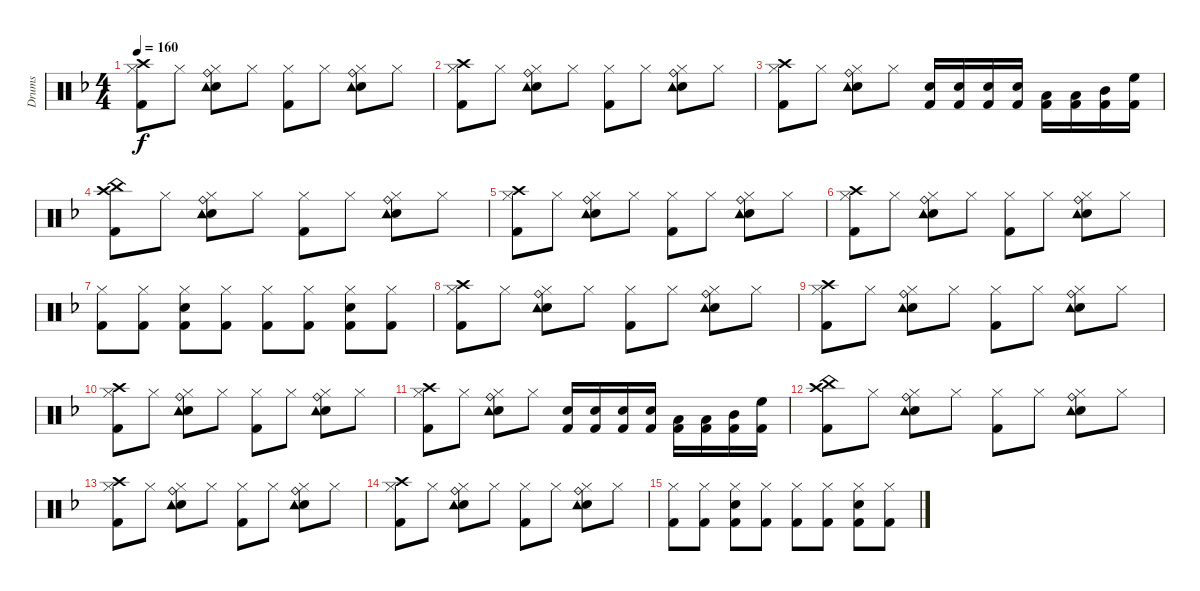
\track ("Drums" "Drums") {instrument percussion}
\staff {score}
\articulation defaults
\ts (4 4)
\tempo 160
\clef neutral
\ks dminor
("Hi-Hat (closed)" "Crash high (hit)" "Kick (hit) 2").8{dy f} "Hi-Hat (closed)".8 ("Hi-Hat (closed)" "Electric Snare (hit)" "Tambourine (hit)" "Ride (bell)").8 "Hi-Hat (closed)".8 ("Hi-Hat (closed)" "Kick (hit) 2").8 "Hi-Hat (closed)".8 ("Hi-Hat (closed)" "Electric Snare (hit)" "Tambourine (hit)" "Ride (bell)").8 "Hi-Hat (closed)".8 |
("Hi-Hat (closed)" "Crash high (hit)" "Kick (hit) 2").8 "Hi-Hat (closed)".8 ("Hi-Hat (closed)" "Electric Snare (hit)" "Tambourine (hit)" "Ride (bell)").8 "Hi-Hat (closed)".8 ("Hi-Hat (closed)" "Kick (hit) 2").8 "Hi-Hat (closed)".8 ("Hi-Hat (closed)" "Electric Snare (hit)" "Tambourine (hit)" "Ride (bell)").8 "Hi-Hat (closed)".8 |
("Hi-Hat (closed)" "Crash high (hit)" "Kick (hit) 2").8 "Hi-Hat (closed)".8 ("Hi-Hat (closed)" "Electric Snare (hit)" "Tambourine (hit)" "Ride (bell)").8 "Hi-Hat (closed)".8 ("Snare (hit) 2" "Kick (hit) 2").16 ("Snare (hit) 2" "Kick (hit) 2").16 ("Snare (hit) 2" "Kick (hit) 2").16 ("Snare (hit) 2" "Kick (hit) 2").16 ("Low Floor Tom (hit)" "Kick (hit) 2").16 ("Low Tom (hit)" "Kick (hit) 2").16 ("Mid Tom (hit)" "Kick (hit) 2").16 ("High Floor Tom (hit)" "Kick (hit) 2").16 |
("China (hit)" "Crash high (hit)" "Kick (hit) 2").8 "Hi-Hat (closed)".8 ("Hi-Hat (closed)" "Electric Snare (hit)" "Tambourine (hit)" "Ride (bell)").8 "Hi-Hat (closed)".8 ("Hi-Hat (closed)" "Kick (hit) 2").8 "Hi-Hat (closed)".8 ("Hi-Hat (closed)" "Electric Snare (hit)" "Tambourine (hit)" "Ride (bell)").8 "Hi-Hat (closed)".8 |
("Hi-Hat (closed)" "Crash high (hit)" "Kick (hit) 2").8 "Hi-Hat (closed)".8 ("Hi-Hat (closed)" "Electric Snare (hit)" "Tambourine (hit)" "Ride (bell)").8 "Hi-Hat (closed)".8 ("Hi-Hat (closed)" "Kick (hit) 2").8 "Hi-Hat (closed)".8 ("Hi-Hat (closed)" "Electric Snare (hit)" "Tambourine (hit)" "Ride (bell)").8 "Hi-Hat (closed)".8 |
("Hi-Hat (closed)" "Crash high (hit)" "Kick (hit) 2").8 "Hi-Hat (closed)".8 ("Hi-Hat (closed)" "Electric Snare (hit)" "Tambourine (hit)" "Ride (bell)").8 "Hi-Hat (closed)".8 ("Hi-Hat (closed)" "Kick (hit) 2").8 "Hi-Hat (closed)".8 ("Hi-Hat (closed)" "Electric Snare (hit)" "Tambourine (hit)" "Ride (bell)").8 "Hi-Hat (closed)".8 |
("Hi-Hat (closed)" "Kick (hit) 2").8 ("Hi-Hat (closed)" "Kick (hit) 2").8 ("Hi-Hat (closed)" "Electric Snare (hit)" "Kick (hit) 2").8 ("Hi-Hat (closed)" "Kick (hit) 2").8 ("Hi-Hat (closed)" "Kick (hit) 2").8 ("Hi-Hat (closed)" "Kick (hit) 2").8 ("Hi-Hat (closed)" "Electric Snare (hit)" "Kick (hit) 2").8 ("Hi-Hat (closed)" "Kick (hit) 2").8 |
("Hi-Hat (closed)" "Crash high (hit)" "Kick (hit) 2").8 "Hi-Hat (closed)".8 ("Hi-Hat (closed)" "Electric Snare (hit)" "Tambourine (hit)" "Ride (bell)").8 "Hi-Hat (closed)".8 ("Hi-Hat (closed)" "Kick (hit) 2").8 "Hi-Hat (closed)".8 ("Hi-Hat (closed)" "Electric Snare (hit)" "Tambourine (hit)" "Ride (bell)").8 "Hi-Hat (closed)".8 |
("Hi-Hat (closed)" "Crash high (hit)" "Kick (hit) 2").8 "Hi-Hat (closed)".8 ("Hi-Hat (closed)" "Electric Snare (hit)" "Tambourine (hit)" "Ride (bell)").8 "Hi-Hat (closed)".8 ("Hi-Hat (closed)" "Kick (hit) 2").8 "Hi-Hat (closed)".8 ("Hi-Hat (closed)" "Electric Snare (hit)" "Tambourine (hit)" "Ride (bell)").8 "Hi-Hat (closed)".8 |
("Hi-Hat (closed)" "Crash high (hit)" "Kick (hit) 2").8 "Hi-Hat (closed)".8 ("Hi-Hat (closed)" "Electric Snare (hit)" "Tambourine (hit)" "Ride (bell)").8 "Hi-Hat (closed)".8 ("Hi-Hat (closed)" "Kick (hit) 2").8 "Hi-Hat (closed)".8 ("Hi-Hat (closed)" "Electric Snare (hit)" "Tambourine (hit)" "Ride (bell)").8 "Hi-Hat (closed)".8 |
("Hi-Hat (closed)" "Crash high (hit)" "Kick (hit) 2").8 "Hi-Hat (closed)".8 ("Hi-Hat (closed)" "Electric Snare (hit)" "Tambourine (hit)" "Ride (bell)").8 "Hi-Hat (closed)".8 ("Snare (hit) 2" "Kick (hit) 2").16 ("Snare (hit) 2" "Kick (hit) 2").16 ("Snare (hit) 2" "Kick (hit) 2").16 ("Snare (hit) 2" "Kick (hit) 2").16 ("Low Floor Tom (hit)" "Kick (hit) 2").16 ("Low Tom (hit)" "Kick (hit) 2").16 ("Mid Tom (hit)" "Kick (hit) 2").16 ("High Floor Tom (hit)" "Kick (hit) 2").16 |
("China (hit)" "Crash high (hit)" "Kick (hit) 2").8 "Hi-Hat (closed)".8 ("Hi-Hat (closed)" "Electric Snare (hit)" "Tambourine (hit)" "Ride (bell)").8 "Hi-Hat (closed)".8 ("Hi-Hat (closed)" "Kick (hit) 2").8 "Hi-Hat (closed)".8 ("Hi-Hat (closed)" "Electric Snare (hit)" "Tambourine (hit)" "Ride (bell)").8 "Hi-Hat (closed)".8 |
("Hi-Hat (closed)" "Crash high (hit)" "Kick (hit) 2").8 "Hi-Hat (closed)".8 ("Hi-Hat (closed)" "Electric Snare (hit)" "Tambourine (hit)" "Ride (bell)").8 "Hi-Hat (closed)".8 ("Hi-Hat (closed)" "Kick (hit) 2").8 "Hi-Hat (closed)".8 ("Hi-Hat (closed)" "Electric Snare (hit)" "Tambourine (hit)" "Ride (bell)").8 "Hi-Hat (closed)".8 |
("Hi-Hat (closed)" "Crash high (hit)" "Kick (hit) 2").8 "Hi-Hat (closed)".8 ("Hi-Hat (closed)" "Electric Snare (hit)" "Tambourine (hit)" "Ride (bell)").8 "Hi-Hat (closed)".8 ("Hi-Hat (closed)" "Kick (hit) 2").8 "Hi-Hat (closed)".8 ("Hi-Hat (closed)" "Electric Snare (hit)" "Tambourine (hit)" "Ride (bell)").8 "Hi-Hat (closed)".8 |
("Hi-Hat (closed)" "Kick (hit) 2").8 ("Hi-Hat (closed)" "Kick (hit) 2").8 ("Hi-Hat (closed)" "Electric Snare (hit)" "Kick (hit) 2").8 ("Hi-Hat (closed)" "Kick (hit) 2").8 ("Hi-Hat (closed)" "Kick (hit) 2").8 ("Hi-Hat (closed)" "Kick (hit) 2").8 ("Hi-Hat (closed)" "Electric Snare (hit)" "Kick (hit) 2").8 ("Hi-Hat (closed)" "Kick (hit) 2").8
